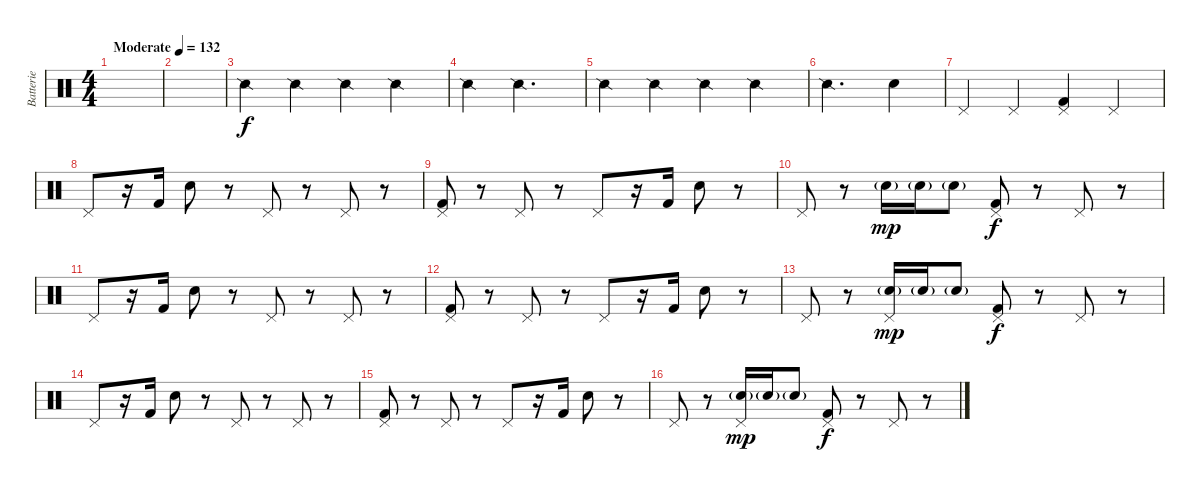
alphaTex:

\track ("Batterie" "Batterie") {instrument percussion}
\staff {score}
\articulation defaults
\ts (4 4)
\tempo (132 "Moderate")
\clef neutral
\ks c
|
|
"Snare (side stick) 2".4 "Snare (side stick) 2".4 "Snare (side stick) 2".4 "Snare (side stick) 2".4 |
"Snare (side stick) 2".4 "Snare (side stick) 2".2{d} |
"Snare (side stick) 2".4 "Snare (side stick) 2".4 "Snare (side stick) 2".4 "Snare (side stick) 2".4 |
"Snare (side stick) 2".2{d} "Electric Snare (hit)".4 |
"Pedal Hi-Hat (hit)".4 "Pedal Hi-Hat (hit)".4 ("Pedal Hi-Hat (hit)" "Kick (hit) 2").4 "Pedal Hi-Hat (hit)".4 |
"Pedal Hi-Hat (hit)".8 r.16 "Kick (hit) 2".16 "Electric Snare (hit)".8 r.8 "Pedal Hi-Hat (hit)".8 r.8 "Pedal Hi-Hat (hit)".8 r.8 |
("Pedal Hi-Hat (hit)" "Kick (hit) 2").8 r.8 "Pedal Hi-Hat (hit)".8 r.8 "Pedal Hi-Hat (hit)".8 r.16 "Kick (hit) 2".16 "Electric Snare (hit)".8 r.8 |
"Pedal Hi-Hat (hit)".8 r.8 "Electric Snare (hit)"{g}.16{dy mp} "Electric Snare (hit)"{g}.16 "Electric Snare (hit)"{g}.8 ("Pedal Hi-Hat (hit)" "Kick (hit) 2").8{dy f} r.8 "Pedal Hi-Hat (hit)".8 r.8 |
"Pedal Hi-Hat (hit)".8 r.16 "Kick (hit) 2".16 "Electric Snare (hit)".8 r.8 "Pedal Hi-Hat (hit)".8 r.8 "Pedal Hi-Hat (hit)".8 r.8 |
("Pedal Hi-Hat (hit)" "Kick (hit) 2").8 r.8 "Pedal Hi-Hat (hit)".8 r.8 "Pedal Hi-Hat (hit)".8 r.16 "Kick (hit) 2".16 "Electric Snare (hit)".8 r.8 |
"Pedal Hi-Hat (hit)".8 r.8 ("Pedal Hi-Hat (hit)" "Electric Snare (hit)"{g}).16{dy mp} "Electric Snare (hit)"{g}.16 "Electric Snare (hit)"{g}.8 ("Pedal Hi-Hat (hit)" "Kick (hit) 2").8{dy f} r.8 "Pedal Hi-Hat (hit)".8 r.8 |
"Pedal Hi-Hat (hit)".8 r.16 "Kick (hit) 2".16 "Electric Snare (hit)".8 r.8 "Pedal Hi-Hat (hit)".8 r.8 "Pedal Hi-Hat (hit)".8 r.8 |
("Pedal Hi-Hat (hit)" "Kick (hit) 2").8 r.8 "Pedal Hi-Hat (hit)".8 r.8 "Pedal Hi-Hat (hit)".8 r.16 "Kick (hit) 2".16 "Electric Snare (hit)".8 r.8 |
"Pedal Hi-Hat (hit)".8 r.8 ("Pedal Hi-Hat (hit)" "Electric Snare (hit)"{g}).16{dy mp} "Electric Snare (hit)"{g}.16 "Electric Snare (hit)"{g}.8 ("Pedal Hi-Hat (hit)" "Kick (hit) 2").8{dy f} r.8 "Pedal Hi-Hat (hit)".8 r.8
